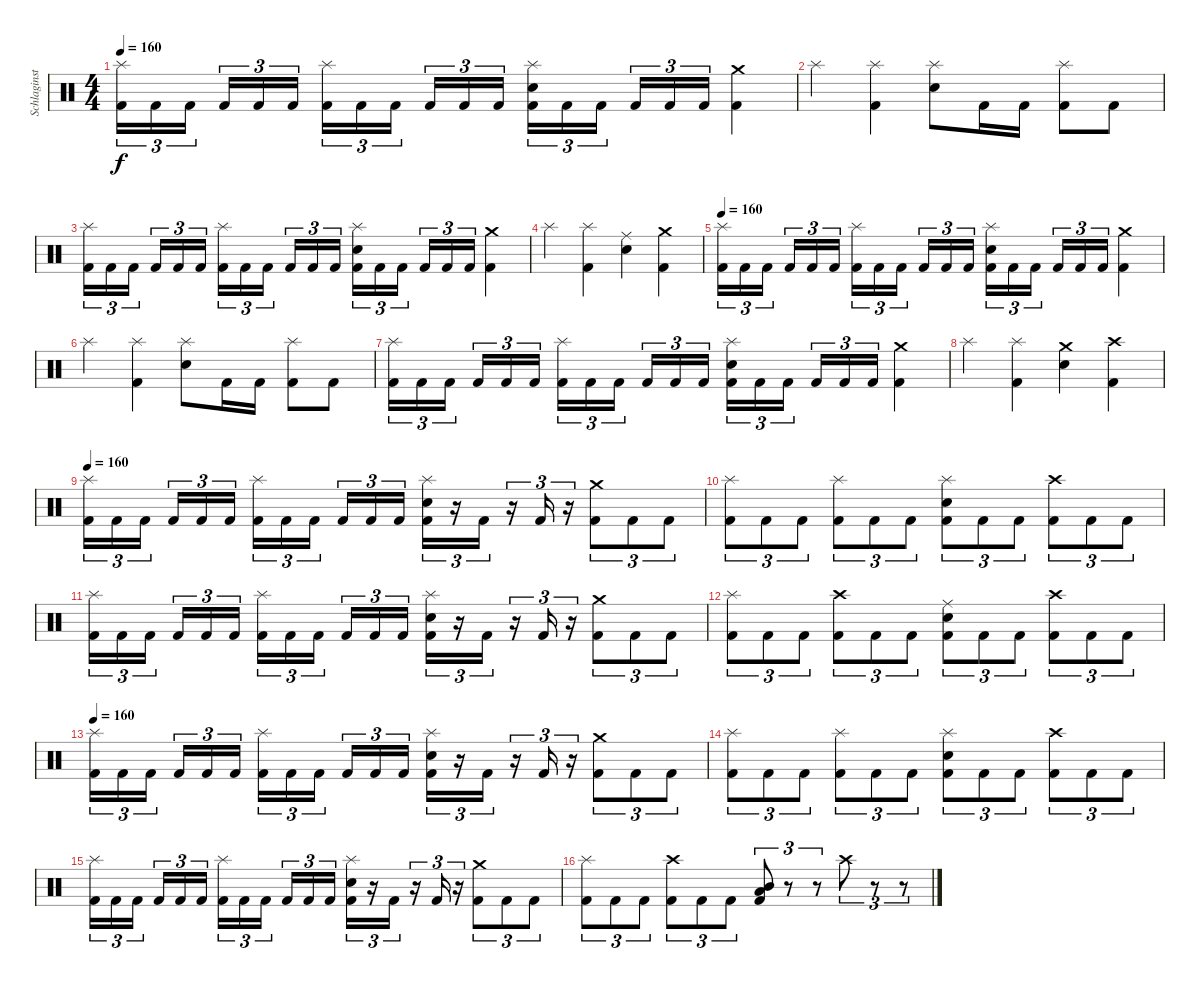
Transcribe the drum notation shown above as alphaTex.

\track ("Schlaginstrumente - Auswahl" "Schlaginst") {instrument percussion}
\staff {score}
\articulation defaults
\ts (4 4)
\tempo 160
\clef neutral
\ks c
("Splash (hit)" "Kick (hit) 2").16{tu (3 2) dy f} "Kick (hit) 2".16{tu (3 2)} "Kick (hit) 2".16{tu (3 2) beam splitsecondary} "Kick (hit) 2".16{tu (3 2)} "Kick (hit) 2".16{tu (3 2)} "Kick (hit) 2".16{tu (3 2)} ("Splash (hit)" "Kick (hit) 2").16{tu (3 2)} "Kick (hit) 2".16{tu (3 2)} "Kick (hit) 2".16{tu (3 2) beam splitsecondary} "Kick (hit) 2".16{tu (3 2)} "Kick (hit) 2".16{tu (3 2)} "Kick (hit) 2".16{tu (3 2)} ("Splash (hit)" "Electric Snare (hit)" "Kick (hit) 2").16{tu (3 2)} "Kick (hit) 2".16{tu (3 2)} "Kick (hit) 2".16{tu (3 2) beam splitsecondary} "Kick (hit) 2".16{tu (3 2)} "Kick (hit) 2".16{tu (3 2)} "Kick (hit) 2".16{tu (3 2)} ("Crash medium (hit)" "Kick (hit) 2").4 |
"Splash (hit)".4 ("Splash (hit)" "Kick (hit) 2").4 ("Splash (hit)" "Electric Snare (hit)").8 "Kick (hit) 2".16 "Kick (hit) 2".16 ("Splash (hit)" "Kick (hit) 2").8 "Kick (hit) 2".8 |
("Splash (hit)" "Kick (hit) 2").16{tu (3 2)} "Kick (hit) 2".16{tu (3 2)} "Kick (hit) 2".16{tu (3 2) beam splitsecondary} "Kick (hit) 2".16{tu (3 2)} "Kick (hit) 2".16{tu (3 2)} "Kick (hit) 2".16{tu (3 2)} ("Splash (hit)" "Kick (hit) 2").16{tu (3 2)} "Kick (hit) 2".16{tu (3 2)} "Kick (hit) 2".16{tu (3 2) beam splitsecondary} "Kick (hit) 2".16{tu (3 2)} "Kick (hit) 2".16{tu (3 2)} "Kick (hit) 2".16{tu (3 2)} ("Splash (hit)" "Electric Snare (hit)" "Kick (hit) 2").16{tu (3 2)} "Kick (hit) 2".16{tu (3 2)} "Kick (hit) 2".16{tu (3 2) beam splitsecondary} "Kick (hit) 2".16{tu (3 2)} "Kick (hit) 2".16{tu (3 2)} "Kick (hit) 2".16{tu (3 2)} ("Crash medium (hit)" "Kick (hit) 2").4 |
"Splash (hit)".4 ("Splash (hit)" "Kick (hit) 2").4 ("Ride (middle)" "Electric Snare (hit)").4 ("Crash medium (hit)" "Kick (hit) 2").4 |
\tempo 160
("Splash (hit)" "Kick (hit) 2").16{tu (3 2)} "Kick (hit) 2".16{tu (3 2)} "Kick (hit) 2".16{tu (3 2) beam splitsecondary} "Kick (hit) 2".16{tu (3 2)} "Kick (hit) 2".16{tu (3 2)} "Kick (hit) 2".16{tu (3 2)} ("Splash (hit)" "Kick (hit) 2").16{tu (3 2)} "Kick (hit) 2".16{tu (3 2)} "Kick (hit) 2".16{tu (3 2) beam splitsecondary} "Kick (hit) 2".16{tu (3 2)} "Kick (hit) 2".16{tu (3 2)} "Kick (hit) 2".16{tu (3 2)} ("Splash (hit)" "Electric Snare (hit)" "Kick (hit) 2").16{tu (3 2)} "Kick (hit) 2".16{tu (3 2)} "Kick (hit) 2".16{tu (3 2) beam splitsecondary} "Kick (hit) 2".16{tu (3 2)} "Kick (hit) 2".16{tu (3 2)} "Kick (hit) 2".16{tu (3 2)} ("Crash medium (hit)" "Kick (hit) 2").4 |
"Splash (hit)".4 ("Splash (hit)" "Kick (hit) 2").4 ("Splash (hit)" "Electric Snare (hit)").8 "Kick (hit) 2".16 "Kick (hit) 2".16 ("Splash (hit)" "Kick (hit) 2").8 "Kick (hit) 2".8 |
("Splash (hit)" "Kick (hit) 2").16{tu (3 2)} "Kick (hit) 2".16{tu (3 2)} "Kick (hit) 2".16{tu (3 2) beam splitsecondary} "Kick (hit) 2".16{tu (3 2)} "Kick (hit) 2".16{tu (3 2)} "Kick (hit) 2".16{tu (3 2)} ("Splash (hit)" "Kick (hit) 2").16{tu (3 2)} "Kick (hit) 2".16{tu (3 2)} "Kick (hit) 2".16{tu (3 2) beam splitsecondary} "Kick (hit) 2".16{tu (3 2)} "Kick (hit) 2".16{tu (3 2)} "Kick (hit) 2".16{tu (3 2)} ("Splash (hit)" "Electric Snare (hit)" "Kick (hit) 2").16{tu (3 2)} "Kick (hit) 2".16{tu (3 2)} "Kick (hit) 2".16{tu (3 2) beam splitsecondary} "Kick (hit) 2".16{tu (3 2)} "Kick (hit) 2".16{tu (3 2)} "Kick (hit) 2".16{tu (3 2)} ("Crash medium (hit)" "Kick (hit) 2").4 |
"Splash (hit)".4 ("Splash (hit)" "Kick (hit) 2").4 ("Crash medium (hit)" "Electric Snare (hit)").4 ("Crash high (hit)" "Kick (hit) 2").4 |
\tempo 160
("Splash (hit)" "Kick (hit) 2").16{tu (3 2)} "Kick (hit) 2".16{tu (3 2)} "Kick (hit) 2".16{tu (3 2) beam splitsecondary} "Kick (hit) 2".16{tu (3 2)} "Kick (hit) 2".16{tu (3 2)} "Kick (hit) 2".16{tu (3 2)} ("Splash (hit)" "Kick (hit) 2").16{tu (3 2)} "Kick (hit) 2".16{tu (3 2)} "Kick (hit) 2".16{tu (3 2) beam splitsecondary} "Kick (hit) 2".16{tu (3 2)} "Kick (hit) 2".16{tu (3 2)} "Kick (hit) 2".16{tu (3 2)} ("Splash (hit)" "Electric Snare (hit)" "Kick (hit) 2").16{tu (3 2)} r.16{tu (3 2)} "Kick (hit) 2".16{tu (3 2)} r.16{tu (3 2)} "Kick (hit) 2".16{tu (3 2)} r.16{tu (3 2)} ("Crash medium (hit)" "Kick (hit) 2").8{tu (3 2)} "Kick (hit) 2".8{tu (3 2)} "Kick (hit) 2".8{tu (3 2)} |
("Splash (hit)" "Kick (hit) 2").8{tu (3 2)} "Kick (hit) 2".8{tu (3 2)} "Kick (hit) 2".8{tu (3 2)} ("Splash (hit)" "Kick (hit) 2").8{tu (3 2)} "Kick (hit) 2".8{tu (3 2)} "Kick (hit) 2".8{tu (3 2)} ("Splash (hit)" "Electric Snare (hit)" "Kick (hit) 2").8{tu (3 2)} "Kick (hit) 2".8{tu (3 2)} "Kick (hit) 2".8{tu (3 2)} ("Crash high (hit)" "Kick (hit) 2").8{tu (3 2)} "Kick (hit) 2".8{tu (3 2)} "Kick (hit) 2".8{tu (3 2)} |
("Splash (hit)" "Kick (hit) 2").16{tu (3 2)} "Kick (hit) 2".16{tu (3 2)} "Kick (hit) 2".16{tu (3 2) beam splitsecondary} "Kick (hit) 2".16{tu (3 2)} "Kick (hit) 2".16{tu (3 2)} "Kick (hit) 2".16{tu (3 2)} ("Splash (hit)" "Kick (hit) 2").16{tu (3 2)} "Kick (hit) 2".16{tu (3 2)} "Kick (hit) 2".16{tu (3 2) beam splitsecondary} "Kick (hit) 2".16{tu (3 2)} "Kick (hit) 2".16{tu (3 2)} "Kick (hit) 2".16{tu (3 2)} ("Splash (hit)" "Electric Snare (hit)" "Kick (hit) 2").16{tu (3 2)} r.16{tu (3 2)} "Kick (hit) 2".16{tu (3 2)} r.16{tu (3 2)} "Kick (hit) 2".16{tu (3 2)} r.16{tu (3 2)} ("Crash medium (hit)" "Kick (hit) 2").8{tu (3 2)} "Kick (hit) 2".8{tu (3 2)} "Kick (hit) 2".8{tu (3 2)} |
("Splash (hit)" "Kick (hit) 2").8{tu (3 2)} "Kick (hit) 2".8{tu (3 2)} "Kick (hit) 2".8{tu (3 2)} ("Crash high (hit)" "Kick (hit) 2").8{tu (3 2)} "Kick (hit) 2".8{tu (3 2)} "Kick (hit) 2".8{tu (3 2)} ("Ride (middle)" "Electric Snare (hit)" "Kick (hit) 2").8{tu (3 2)} "Kick (hit) 2".8{tu (3 2)} "Kick (hit) 2".8{tu (3 2)} ("Crash high (hit)" "Kick (hit) 2").8{tu (3 2)} "Kick (hit) 2".8{tu (3 2)} "Kick (hit) 2".8{tu (3 2)} |
\tempo 160
("Splash (hit)" "Kick (hit) 2").16{tu (3 2)} "Kick (hit) 2".16{tu (3 2)} "Kick (hit) 2".16{tu (3 2) beam splitsecondary} "Kick (hit) 2".16{tu (3 2)} "Kick (hit) 2".16{tu (3 2)} "Kick (hit) 2".16{tu (3 2)} ("Splash (hit)" "Kick (hit) 2").16{tu (3 2)} "Kick (hit) 2".16{tu (3 2)} "Kick (hit) 2".16{tu (3 2) beam splitsecondary} "Kick (hit) 2".16{tu (3 2)} "Kick (hit) 2".16{tu (3 2)} "Kick (hit) 2".16{tu (3 2)} ("Splash (hit)" "Electric Snare (hit)" "Kick (hit) 2").16{tu (3 2)} r.16{tu (3 2)} "Kick (hit) 2".16{tu (3 2)} r.16{tu (3 2)} "Kick (hit) 2".16{tu (3 2)} r.16{tu (3 2)} ("Crash medium (hit)" "Kick (hit) 2").8{tu (3 2)} "Kick (hit) 2".8{tu (3 2)} "Kick (hit) 2".8{tu (3 2)} |
("Splash (hit)" "Kick (hit) 2").8{tu (3 2)} "Kick (hit) 2".8{tu (3 2)} "Kick (hit) 2".8{tu (3 2)} ("Splash (hit)" "Kick (hit) 2").8{tu (3 2)} "Kick (hit) 2".8{tu (3 2)} "Kick (hit) 2".8{tu (3 2)} ("Splash (hit)" "Electric Snare (hit)" "Kick (hit) 2").8{tu (3 2)} "Kick (hit) 2".8{tu (3 2)} "Kick (hit) 2".8{tu (3 2)} ("Crash high (hit)" "Kick (hit) 2").8{tu (3 2)} "Kick (hit) 2".8{tu (3 2)} "Kick (hit) 2".8{tu (3 2)} |
("Splash (hit)" "Kick (hit) 2").16{tu (3 2)} "Kick (hit) 2".16{tu (3 2)} "Kick (hit) 2".16{tu (3 2) beam splitsecondary} "Kick (hit) 2".16{tu (3 2)} "Kick (hit) 2".16{tu (3 2)} "Kick (hit) 2".16{tu (3 2)} ("Splash (hit)" "Kick (hit) 2").16{tu (3 2)} "Kick (hit) 2".16{tu (3 2)} "Kick (hit) 2".16{tu (3 2) beam splitsecondary} "Kick (hit) 2".16{tu (3 2)} "Kick (hit) 2".16{tu (3 2)} "Kick (hit) 2".16{tu (3 2)} ("Splash (hit)" "Electric Snare (hit)" "Kick (hit) 2").16{tu (3 2)} r.16{tu (3 2)} "Kick (hit) 2".16{tu (3 2)} r.16{tu (3 2)} "Kick (hit) 2".16{tu (3 2)} r.16{tu (3 2)} ("Crash medium (hit)" "Kick (hit) 2").8{tu (3 2)} "Kick (hit) 2".8{tu (3 2)} "Kick (hit) 2".8{tu (3 2)} |
("Splash (hit)" "Kick (hit) 2").8{tu (3 2)} "Kick (hit) 2".8{tu (3 2)} "Kick (hit) 2".8{tu (3 2)} ("Crash high (hit)" "Kick (hit) 2").8{tu (3 2)} "Kick (hit) 2".8{tu (3 2)} "Kick (hit) 2".8{tu (3 2)} ("Mid Tom (hit)" "Low Tom (hit)" "Kick (hit) 2").8{tu (3 2)} r.8{tu (3 2)} r.8{tu (3 2)} "Crash high (hit)".8{tu (3 2)} r.8{tu (3 2)} r.8{tu (3 2)}
